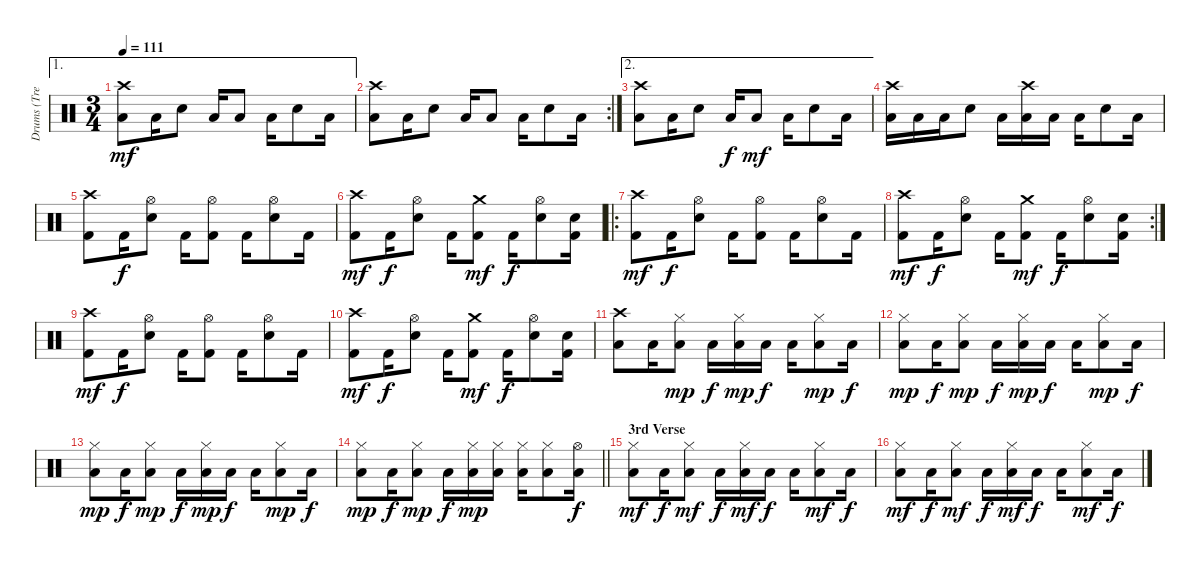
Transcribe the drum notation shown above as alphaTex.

\track ("Drums (Tre Cool)" "Drums (Tre") {instrument percussion}
\staff {score}
\articulation defaults
\ae 1
\ts (3 4)
\tempo 111
\clef neutral
\ks c
("Crash high (hit)" "Low Floor Tom (hit)").8{dy mf} "Low Floor Tom (hit)".16 "Electric Snare (hit)".8 "Low Floor Tom (hit)".16 "Low Floor Tom (hit)".8 "Low Floor Tom (hit)".16 "Electric Snare (hit)".8 "Low Floor Tom (hit)".16 |
\rc 2
("Crash high (hit)" "Low Floor Tom (hit)").8 "Low Floor Tom (hit)".16 "Electric Snare (hit)".8 "Low Floor Tom (hit)".16 "Low Floor Tom (hit)".8 "Low Floor Tom (hit)".16 "Electric Snare (hit)".8 "Low Floor Tom (hit)".16 |
\ae 2
("Crash high (hit)" "Low Floor Tom (hit)").8 "Low Floor Tom (hit)".16 "Electric Snare (hit)".8 "Low Floor Tom (hit)".16{dy f} "Low Floor Tom (hit)".8{dy mf} "Low Floor Tom (hit)".16 "Electric Snare (hit)".8 "Low Floor Tom (hit)".16 |
("Crash high (hit)" "Low Floor Tom (hit)").16 "Low Floor Tom (hit)".16 "Low Floor Tom (hit)".16 "Electric Snare (hit)".8 "Low Floor Tom (hit)".16 ("Crash high (hit)" "Low Floor Tom (hit)").16 "Low Floor Tom (hit)".16 "Low Floor Tom (hit)".16 "Electric Snare (hit)".8 "Low Floor Tom (hit)".16 |
("Crash high (hit)" "Kick (hit) 2").8 "Kick (hit) 2".16{dy f} ("Hi-Hat (open)" "Electric Snare (hit)").8 "Kick (hit) 2".16 ("Hi-Hat (open)" "Kick (hit) 2").8 "Kick (hit) 2".16 ("Hi-Hat (open)" "Electric Snare (hit)").8 "Kick (hit) 2".16 |
("Crash high (hit)" "Kick (hit) 2").8{dy mf} "Kick (hit) 2".16{dy f} ("Hi-Hat (open)" "Electric Snare (hit)").8 "Kick (hit) 2".16 ("Crash medium (hit)" "Kick (hit) 2").8{dy mf} "Kick (hit) 2".16{dy f} ("Hi-Hat (open)" "Electric Snare (hit)").8 ("Electric Snare (hit)" "Kick (hit) 2").16 |
\ro
("Crash high (hit)" "Kick (hit) 2").8{dy mf} "Kick (hit) 2".16{dy f} ("Hi-Hat (open)" "Electric Snare (hit)").8 "Kick (hit) 2".16 ("Hi-Hat (open)" "Kick (hit) 2").8 "Kick (hit) 2".16 ("Hi-Hat (open)" "Electric Snare (hit)").8 "Kick (hit) 2".16 |
\rc 2
("Crash high (hit)" "Kick (hit) 2").8{dy mf} "Kick (hit) 2".16{dy f} ("Hi-Hat (open)" "Electric Snare (hit)").8 "Kick (hit) 2".16 ("Crash medium (hit)" "Kick (hit) 2").8{dy mf} "Kick (hit) 2".16{dy f} ("Hi-Hat (open)" "Electric Snare (hit)").8 ("Electric Snare (hit)" "Kick (hit) 2").16 |
("Crash high (hit)" "Kick (hit) 2").8{dy mf} "Kick (hit) 2".16{dy f} ("Hi-Hat (open)" "Electric Snare (hit)").8 "Kick (hit) 2".16 ("Hi-Hat (open)" "Kick (hit) 2").8 "Kick (hit) 2".16 ("Hi-Hat (open)" "Electric Snare (hit)").8 "Kick (hit) 2".16 |
("Crash high (hit)" "Kick (hit) 2").8{dy mf} "Kick (hit) 2".16{dy f} ("Hi-Hat (open)" "Electric Snare (hit)").8 "Kick (hit) 2".16 ("Crash medium (hit)" "Kick (hit) 2").8{dy mf} "Kick (hit) 2".16{dy f} ("Hi-Hat (open)" "Electric Snare (hit)").8 ("Electric Snare (hit)" "Kick (hit) 2").16 |
("Crash high (hit)" "Low Floor Tom (hit)").8 "Low Floor Tom (hit)".16 ("Hi-Hat (closed)" "Low Tom (hit)").8{dy mp} "Low Tom (hit)".16{dy f} ("Hi-Hat (closed)" "Low Floor Tom (hit)").16{dy mp} "Low Floor Tom (hit)".16{dy f} "Low Floor Tom (hit)".16 ("Hi-Hat (closed)" "Low Tom (hit)").8{dy mp} "Low Tom (hit)".16{dy f} |
("Hi-Hat (closed)" "Low Floor Tom (hit)").8{dy mp} "Low Floor Tom (hit)".16{dy f} ("Hi-Hat (closed)" "Low Tom (hit)").8{dy mp} "Low Tom (hit)".16{dy f} ("Hi-Hat (closed)" "Low Floor Tom (hit)").16{dy mp} "Low Floor Tom (hit)".16{dy f} "Low Floor Tom (hit)".16 ("Hi-Hat (closed)" "Low Tom (hit)").8{dy mp} "Low Tom (hit)".16{dy f} |
("Hi-Hat (closed)" "Low Floor Tom (hit)").8{dy mp} "Low Floor Tom (hit)".16{dy f} ("Hi-Hat (closed)" "Low Tom (hit)").8{dy mp} "Low Tom (hit)".16{dy f} ("Hi-Hat (closed)" "Low Floor Tom (hit)").16{dy mp} "Low Floor Tom (hit)".16{dy f} "Low Floor Tom (hit)".16 ("Hi-Hat (closed)" "Low Tom (hit)").8{dy mp} "Low Tom (hit)".16{dy f} |
\barLineRight lightlight
("Hi-Hat (closed)" "Low Floor Tom (hit)").8{dy mp} "Low Floor Tom (hit)".16{dy f} ("Hi-Hat (closed)" "Low Tom (hit)").8{dy mp} "Low Tom (hit)".16{dy f} ("Hi-Hat (closed)" "Low Floor Tom (hit)").16{dy mp} ("Hi-Hat (closed)" "Low Floor Tom (hit)").16 ("Hi-Hat (closed)" "Low Floor Tom (hit)").16 ("Hi-Hat (closed)" "Low Tom (hit)").8 ("Hi-Hat (open)" "Low Tom (hit)").16{dy f} |
\section ("" "3rd Verse")
("Hi-Hat (closed)" "Low Floor Tom (hit)").8{dy mf} "Low Floor Tom (hit)".16{dy f} ("Hi-Hat (closed)" "Low Tom (hit)").8{dy mf} "Low Tom (hit)".16{dy f} ("Hi-Hat (closed)" "Low Floor Tom (hit)").16{dy mf} "Low Floor Tom (hit)".16{dy f} "Low Floor Tom (hit)".16 ("Hi-Hat (closed)" "Low Tom (hit)").8{dy mf} "Low Tom (hit)".16{dy f} |
("Hi-Hat (closed)" "Low Floor Tom (hit)").8{dy mf} "Low Floor Tom (hit)".16{dy f} ("Hi-Hat (closed)" "Low Tom (hit)").8{dy mf} "Low Tom (hit)".16{dy f} ("Hi-Hat (closed)" "Low Floor Tom (hit)").16{dy mf} "Low Floor Tom (hit)".16{dy f} "Low Floor Tom (hit)".16 ("Hi-Hat (closed)" "Low Tom (hit)").8{dy mf} "Low Tom (hit)".16{dy f}
